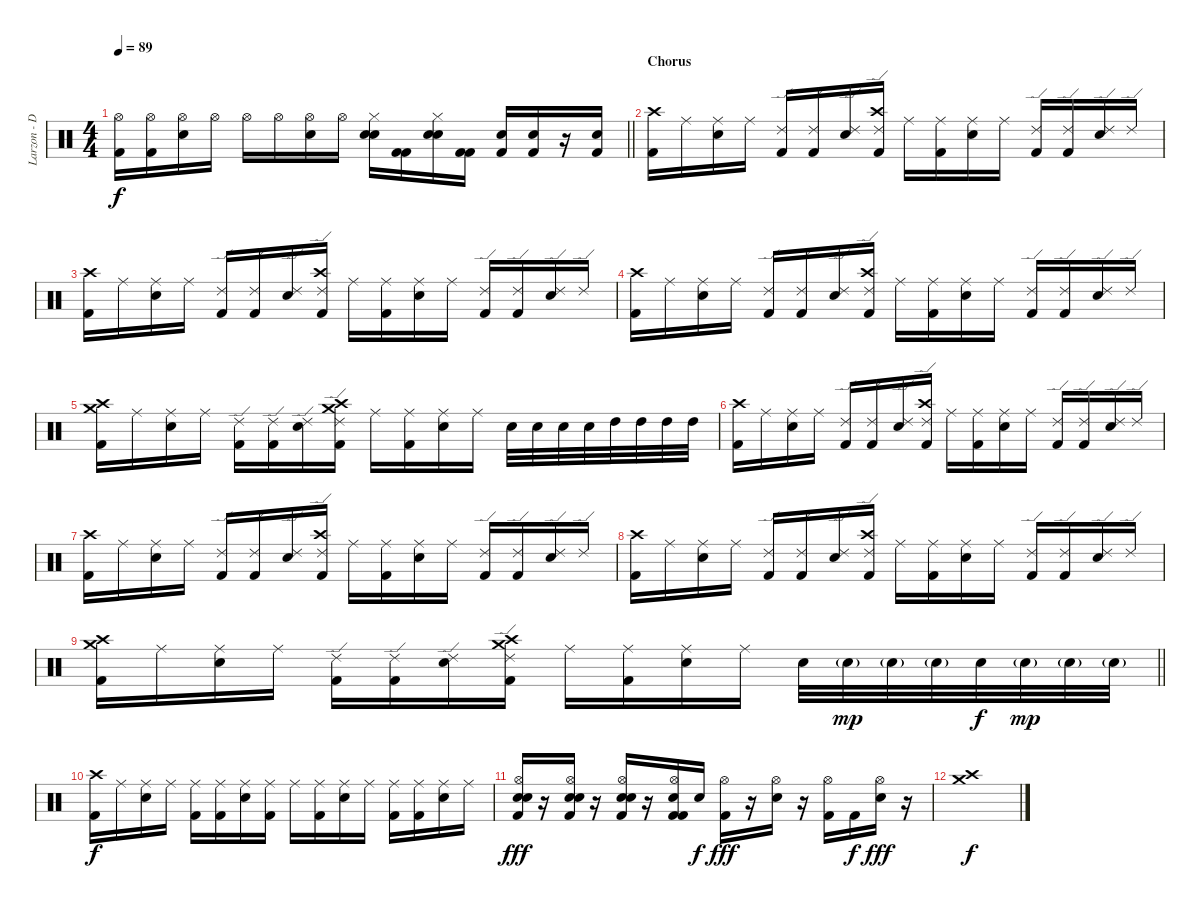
\track ("Larzon - Drums" "Larzon - D") {instrument percussion}
\staff {score}
\articulation defaults
\ts (4 4)
\tempo 89
\clef neutral
\barLineRight lightlight
\ks c
("Kick (hit) 2" "Hi-Hat (open)").16{dy f} ("Kick (hit) 2" "Hi-Hat (open)").16 ("Snare (hit) 2" "Hi-Hat (open)").16 "Hi-Hat (open)".16 "Hi-Hat (open)".16 "Hi-Hat (open)".16 ("Snare (hit) 2" "Hi-Hat (open)").16 "Hi-Hat (open)".16 ("Snare (hit) 2" "Snare (hit) 2" "Hi-Hat (closed)").16 ("Kick (hit) 2" "Kick (hit) 2").16 ("Snare (hit) 2" "Snare (hit) 2" "Hi-Hat (closed)").16 ("Kick (hit) 2" "Kick (hit) 2").16 ("Kick (hit) 2" "Snare (hit) 2").16 ("Kick (hit) 2" "Snare (hit) 2").16 r.16 ("Kick (hit) 2" "Snare (hit) 2").16 |
\section ("" "Chorus")
("Kick (hit) 2" "Crash high (hit)").16 "Ride (middle)".16 ("Snare (hit) 2" "Ride (middle)").16 "Ride (middle)".16 ("Kick (hit) 2" "Ride (edge) 2").16 ("Kick (hit) 2" "Ride (edge) 2").16 ("Snare (hit) 2" "Ride (edge) 2").16 ("Kick (hit) 2" "Crash high (hit)" "Ride (edge) 2").16 "Ride (middle)".16 ("Kick (hit) 2" "Ride (middle)").16 ("Snare (hit) 2" "Ride (middle)").16 "Ride (middle)".16 ("Kick (hit) 2" "Ride (edge) 2").16 ("Kick (hit) 2" "Ride (edge) 2").16 ("Snare (hit) 2" "Ride (edge) 2").16 "Ride (edge) 2".16 |
("Kick (hit) 2" "Crash high (hit)").16 "Ride (middle)".16 ("Snare (hit) 2" "Ride (middle)").16 "Ride (middle)".16 ("Kick (hit) 2" "Ride (edge) 2").16 ("Kick (hit) 2" "Ride (edge) 2").16 ("Snare (hit) 2" "Ride (edge) 2").16 ("Kick (hit) 2" "Crash high (hit)" "Ride (edge) 2").16 "Ride (middle)".16 ("Kick (hit) 2" "Ride (middle)").16 ("Snare (hit) 2" "Ride (middle)").16 "Ride (middle)".16 ("Kick (hit) 2" "Ride (edge) 2").16 ("Kick (hit) 2" "Ride (edge) 2").16 ("Snare (hit) 2" "Ride (edge) 2").16 "Ride (edge) 2".16 |
("Kick (hit) 2" "Crash high (hit)").16 "Ride (middle)".16 ("Snare (hit) 2" "Ride (middle)").16 "Ride (middle)".16 ("Kick (hit) 2" "Ride (edge) 2").16 ("Kick (hit) 2" "Ride (edge) 2").16 ("Snare (hit) 2" "Ride (edge) 2").16 ("Kick (hit) 2" "Crash high (hit)" "Ride (edge) 2").16 "Ride (middle)".16 ("Kick (hit) 2" "Ride (middle)").16 ("Snare (hit) 2" "Ride (middle)").16 "Ride (middle)".16 ("Kick (hit) 2" "Ride (edge) 2").16 ("Kick (hit) 2" "Ride (edge) 2").16 ("Snare (hit) 2" "Ride (edge) 2").16 "Ride (edge) 2".16 |
("Kick (hit) 2" "Crash medium (hit)" "Crash high (hit)").16 "Ride (middle)".16 ("Snare (hit) 2" "Ride (middle)").16 "Ride (middle)".16 ("Kick (hit) 2" "Ride (edge) 2").16 ("Kick (hit) 2" "Ride (edge) 2").16 ("Snare (hit) 2" "Ride (edge) 2").16 ("Kick (hit) 2" "Crash medium (hit)" "Crash high (hit)" "Ride (edge) 2").16 "Ride (middle)".16 ("Kick (hit) 2" "Ride (middle)").16 ("Snare (hit) 2" "Ride (middle)").16 "Ride (middle)".16 "Snare (hit) 2".32 "Snare (hit) 2".32 "Snare (hit) 2".32 "Snare (hit) 2".32 "High Tom (hit)".32 "High Tom (hit)".32 "High Tom (hit)".32 "High Tom (hit)".32 |
("Kick (hit) 2" "Crash high (hit)").16 "Ride (middle)".16 ("Snare (hit) 2" "Ride (middle)").16 "Ride (middle)".16 ("Kick (hit) 2" "Ride (edge) 2").16 ("Kick (hit) 2" "Ride (edge) 2").16 ("Snare (hit) 2" "Ride (edge) 2").16 ("Kick (hit) 2" "Crash high (hit)" "Ride (edge) 2").16 "Ride (middle)".16 ("Kick (hit) 2" "Ride (middle)").16 ("Snare (hit) 2" "Ride (middle)").16 "Ride (middle)".16 ("Kick (hit) 2" "Ride (edge) 2").16 ("Kick (hit) 2" "Ride (edge) 2").16 ("Snare (hit) 2" "Ride (edge) 2").16 "Ride (edge) 2".16 |
("Kick (hit) 2" "Crash high (hit)").16 "Ride (middle)".16 ("Snare (hit) 2" "Ride (middle)").16 "Ride (middle)".16 ("Kick (hit) 2" "Ride (edge) 2").16 ("Kick (hit) 2" "Ride (edge) 2").16 ("Snare (hit) 2" "Ride (edge) 2").16 ("Kick (hit) 2" "Crash high (hit)" "Ride (edge) 2").16 "Ride (middle)".16 ("Kick (hit) 2" "Ride (middle)").16 ("Snare (hit) 2" "Ride (middle)").16 "Ride (middle)".16 ("Kick (hit) 2" "Ride (edge) 2").16 ("Kick (hit) 2" "Ride (edge) 2").16 ("Snare (hit) 2" "Ride (edge) 2").16 "Ride (edge) 2".16 |
("Kick (hit) 2" "Crash high (hit)").16 "Ride (middle)".16 ("Snare (hit) 2" "Ride (middle)").16 "Ride (middle)".16 ("Kick (hit) 2" "Ride (edge) 2").16 ("Kick (hit) 2" "Ride (edge) 2").16 ("Snare (hit) 2" "Ride (edge) 2").16 ("Kick (hit) 2" "Crash high (hit)" "Ride (edge) 2").16 "Ride (middle)".16 ("Kick (hit) 2" "Ride (middle)").16 ("Snare (hit) 2" "Ride (middle)").16 "Ride (middle)".16 ("Kick (hit) 2" "Ride (edge) 2").16 ("Kick (hit) 2" "Ride (edge) 2").16 ("Snare (hit) 2" "Ride (edge) 2").16 "Ride (edge) 2".16 |
\barLineRight lightlight
("Kick (hit) 2" "Crash medium (hit)" "Crash high (hit)").16 "Ride (middle)".16 ("Snare (hit) 2" "Ride (middle)").16 "Ride (middle)".16 ("Kick (hit) 2" "Ride (edge) 2").16 ("Kick (hit) 2" "Ride (edge) 2").16 ("Snare (hit) 2" "Ride (edge) 2").16 ("Kick (hit) 2" "Crash medium (hit)" "Crash high (hit)" "Ride (edge) 2").16 "Ride (middle)".16 ("Kick (hit) 2" "Ride (middle)").16 ("Snare (hit) 2" "Ride (middle)").16 "Ride (middle)".16 "Snare (hit) 2".32 "Snare (hit) 2"{g}.32{dy mp} "Snare (hit) 2"{g}.32 "Snare (hit) 2"{g}.32 "Snare (hit) 2".32{dy f} "Snare (hit) 2"{g}.32{dy mp} "Snare (hit) 2"{g}.32 "Snare (hit) 2"{g}.32 |
("Kick (hit) 2" "Crash high (hit)").16{dy f} "Ride (middle)".16 ("Snare (hit) 2" "Ride (middle)").16 "Ride (middle)".16 ("Kick (hit) 2" "Ride (middle)").16 ("Kick (hit) 2" "Ride (middle)").16 ("Snare (hit) 2" "Ride (middle)").16 ("Kick (hit) 2" "Ride (middle)").16 "Ride (middle)".16 ("Kick (hit) 2" "Ride (middle)").16 ("Snare (hit) 2" "Ride (middle)").16 "Ride (middle)".16 ("Kick (hit) 2" "Ride (middle)").16 ("Kick (hit) 2" "Ride (middle)").16 ("Snare (hit) 2" "Ride (middle)").16 "Ride (middle)".16 |
("Snare (hit) 2" "Kick (hit) 2" "Snare (hit) 2" "Hi-Hat (open)").16{dy fff} r.16 ("Snare (hit) 2" "Kick (hit) 2" "Snare (hit) 2" "Hi-Hat (open)").16 r.16 ("Snare (hit) 2" "Kick (hit) 2" "Snare (hit) 2" "Hi-Hat (open)").16 r.16 ("Kick (hit) 2" "Kick (hit) 2" "Snare (hit) 2" "Hi-Hat (open)").16 "Snare (hit) 2".16{dy f} ("Kick (hit) 2" "Hi-Hat (open)").16{dy fff} r.16 ("Snare (hit) 2" "Hi-Hat (open)").16 r.16 ("Kick (hit) 2" "Hi-Hat (open)").16 "Kick (hit) 2".16{dy f} ("Snare (hit) 2" "Hi-Hat (open)").16{dy fff} r.16 |
("Crash medium (hit)" "Crash high (hit)").1{dy f}
